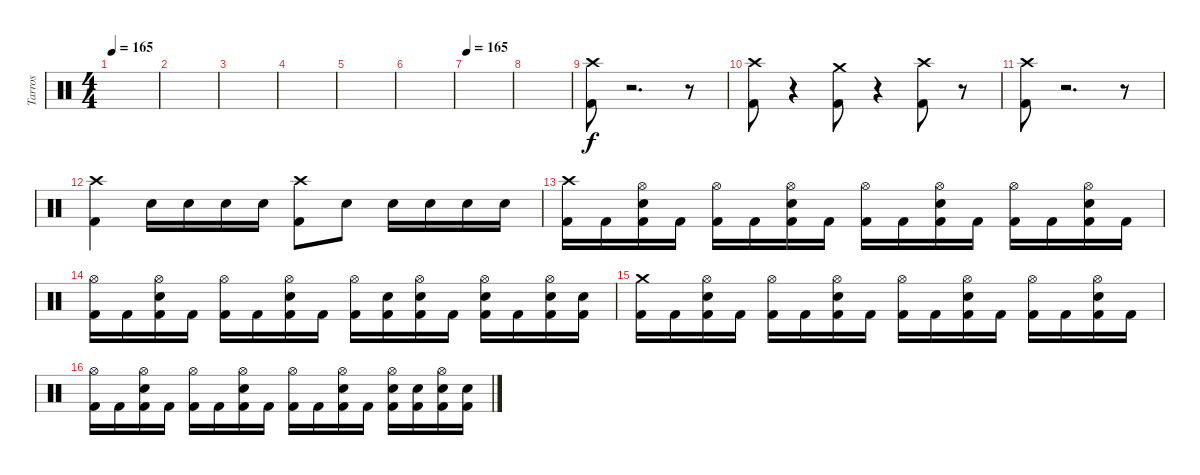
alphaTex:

\track ("Tarros" "Tarros") {instrument percussion}
\staff {score}
\articulation defaults
\ts (4 4)
\tempo 165
\tempo 120
\tempo 165
\clef neutral
\ks c
|
|
|
|
|
|
\tempo 165
|
|
("Crash high (hit)" "Kick (hit) 2").8 r.2{d volume 0} r.8{volume 14} |
("Crash high (hit)" "Kick (hit) 2").8 r.4{volume 0} ("Crash medium (hit)" "Kick (hit) 2").8{volume 14} r.4{volume 0} ("Crash high (hit)" "Kick (hit) 2").8{volume 14} r.8{volume 0} |
("Crash high (hit)" "Kick (hit) 2").8{volume 14} r.2{d volume 0} r.8{volume 14} |
("Crash high (hit)" "Kick (hit) 2").4 "Electric Snare (hit)".16 "Electric Snare (hit)".16 "Electric Snare (hit)".16 "Electric Snare (hit)".16 ("Crash high (hit)" "Kick (hit) 2").8 "Electric Snare (hit)".8 "Electric Snare (hit)".16 "Electric Snare (hit)".16 "Electric Snare (hit)".16 "Electric Snare (hit)".16 |
("Crash high (hit)" "Kick (hit) 2").16 "Kick (hit) 2".16 ("Hi-Hat (open)" "Electric Snare (hit)" "Kick (hit) 2").16 "Kick (hit) 2".16 ("Hi-Hat (open)" "Kick (hit) 2").16 "Kick (hit) 2".16 ("Hi-Hat (open)" "Electric Snare (hit)" "Kick (hit) 2").16 "Kick (hit) 2".16 ("Hi-Hat (open)" "Kick (hit) 2").16 "Kick (hit) 2".16 ("Hi-Hat (open)" "Electric Snare (hit)" "Kick (hit) 2").16 "Kick (hit) 2".16 ("Hi-Hat (open)" "Kick (hit) 2").16 "Kick (hit) 2".16 ("Hi-Hat (open)" "Electric Snare (hit)" "Kick (hit) 2").16 "Kick (hit) 2".16 |
("Hi-Hat (open)" "Kick (hit) 2").16 "Kick (hit) 2".16 ("Hi-Hat (open)" "Electric Snare (hit)" "Kick (hit) 2").16 "Kick (hit) 2".16 ("Hi-Hat (open)" "Kick (hit) 2").16 "Kick (hit) 2".16 ("Hi-Hat (open)" "Electric Snare (hit)" "Kick (hit) 2").16 "Kick (hit) 2".16 ("Hi-Hat (open)" "Kick (hit) 2").16 ("Electric Snare (hit)" "Kick (hit) 2").16 ("Hi-Hat (open)" "Electric Snare (hit)" "Kick (hit) 2").16 "Kick (hit) 2".16 ("Hi-Hat (open)" "Electric Snare (hit)" "Kick (hit) 2").16 "Kick (hit) 2".16 ("Hi-Hat (open)" "Electric Snare (hit)" "Kick (hit) 2").16 ("Electric Snare (hit)" "Kick (hit) 2").16 |
("Crash medium (hit)" "Kick (hit) 2").16 "Kick (hit) 2".16 ("Hi-Hat (open)" "Electric Snare (hit)" "Kick (hit) 2").16 "Kick (hit) 2".16 ("Hi-Hat (open)" "Kick (hit) 2").16 "Kick (hit) 2".16 ("Hi-Hat (open)" "Electric Snare (hit)" "Kick (hit) 2").16 "Kick (hit) 2".16 ("Hi-Hat (open)" "Kick (hit) 2").16 "Kick (hit) 2".16 ("Hi-Hat (open)" "Electric Snare (hit)" "Kick (hit) 2").16 "Kick (hit) 2".16 ("Hi-Hat (open)" "Kick (hit) 2").16 "Kick (hit) 2".16 ("Hi-Hat (open)" "Electric Snare (hit)" "Kick (hit) 2").16 "Kick (hit) 2".16 |
("Hi-Hat (open)" "Kick (hit) 2").16 "Kick (hit) 2".16 ("Hi-Hat (open)" "Electric Snare (hit)" "Kick (hit) 2").16 "Kick (hit) 2".16 ("Hi-Hat (open)" "Kick (hit) 2").16 "Kick (hit) 2".16 ("Hi-Hat (open)" "Electric Snare (hit)" "Kick (hit) 2").16 "Kick (hit) 2".16 ("Hi-Hat (open)" "Kick (hit) 2").16 "Kick (hit) 2".16 ("Hi-Hat (open)" "Electric Snare (hit)" "Kick (hit) 2").16 "Kick (hit) 2".16 ("Hi-Hat (open)" "Electric Snare (hit)" "Kick (hit) 2").16 ("Electric Snare (hit)" "Kick (hit) 2").16 ("Hi-Hat (open)" "Electric Snare (hit)" "Kick (hit) 2").16 ("Electric Snare (hit)" "Kick (hit) 2").16
